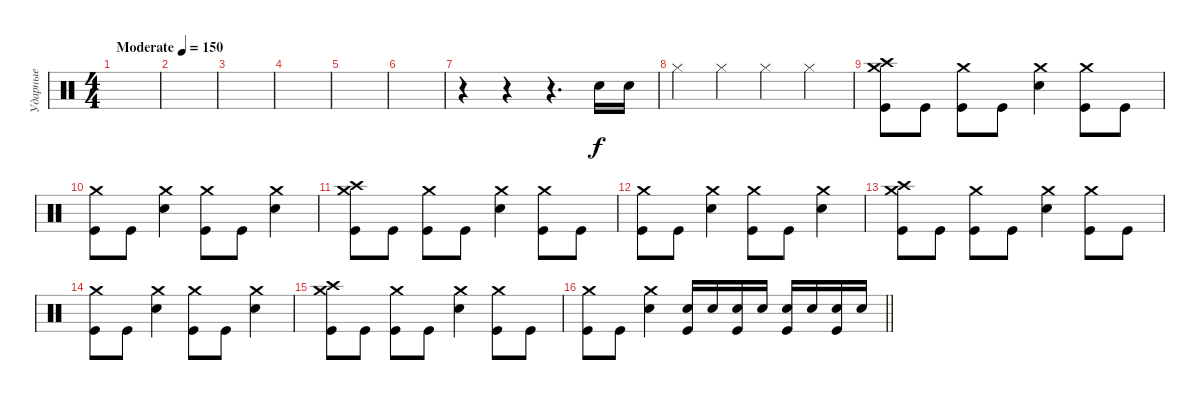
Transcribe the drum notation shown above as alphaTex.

\track ("Ударные" "Ударные") {instrument percussion}
\staff {score}
\articulation defaults
\ts (4 4)
\tempo (150 "Moderate")
\clef neutral
\ks c
|
|
|
|
|
|
r.4 r.4 r.4{d} "Electric Snare (hit)".16 "Electric Snare (hit)".16 |
"Hi-Hat (closed)".4 "Hi-Hat (closed)".4 "Hi-Hat (closed)".4 "Hi-Hat (closed)".4 |
("Crash high (hit)" "Crash medium (hit)" "Kick (hit)").8 "Kick (hit)".8 ("Crash medium (hit)" "Kick (hit)").8 "Kick (hit)".8 ("Crash medium (hit)" "Electric Snare (hit)").4 ("Crash medium (hit)" "Kick (hit)").8 "Kick (hit)".8 |
("Crash medium (hit)" "Kick (hit)").8 "Kick (hit)".8 ("Crash medium (hit)" "Electric Snare (hit)").4 ("Crash medium (hit)" "Kick (hit)").8 "Kick (hit)".8 ("Crash medium (hit)" "Electric Snare (hit)").4 |
("Crash high (hit)" "Crash medium (hit)" "Kick (hit)").8 "Kick (hit)".8 ("Crash medium (hit)" "Kick (hit)").8 "Kick (hit)".8 ("Crash medium (hit)" "Electric Snare (hit)").4 ("Crash medium (hit)" "Kick (hit)").8 "Kick (hit)".8 |
("Crash medium (hit)" "Kick (hit)").8 "Kick (hit)".8 ("Crash medium (hit)" "Electric Snare (hit)").4 ("Crash medium (hit)" "Kick (hit)").8 "Kick (hit)".8 ("Crash medium (hit)" "Electric Snare (hit)").4 |
("Crash high (hit)" "Crash medium (hit)" "Kick (hit)").8 "Kick (hit)".8 ("Crash medium (hit)" "Kick (hit)").8 "Kick (hit)".8 ("Crash medium (hit)" "Electric Snare (hit)").4 ("Crash medium (hit)" "Kick (hit)").8 "Kick (hit)".8 |
("Crash medium (hit)" "Kick (hit)").8 "Kick (hit)".8 ("Crash medium (hit)" "Electric Snare (hit)").4 ("Crash medium (hit)" "Kick (hit)").8 "Kick (hit)".8 ("Crash medium (hit)" "Electric Snare (hit)").4 |
("Crash high (hit)" "Crash medium (hit)" "Kick (hit)").8 "Kick (hit)".8 ("Crash medium (hit)" "Kick (hit)").8 "Kick (hit)".8 ("Crash medium (hit)" "Electric Snare (hit)").4 ("Crash medium (hit)" "Kick (hit)").8 "Kick (hit)".8 |
\barLineRight lightlight
("Crash medium (hit)" "Kick (hit)").8 "Kick (hit)".8 ("Crash medium (hit)" "Electric Snare (hit)").4 ("Electric Snare (hit)" "Kick (hit)").16 "Electric Snare (hit)".16 ("Electric Snare (hit)" "Kick (hit)").16 "Electric Snare (hit)".16 ("Electric Snare (hit)" "Kick (hit)").16 "Electric Snare (hit)".16 ("Electric Snare (hit)" "Kick (hit)").16 "Electric Snare (hit)".16
